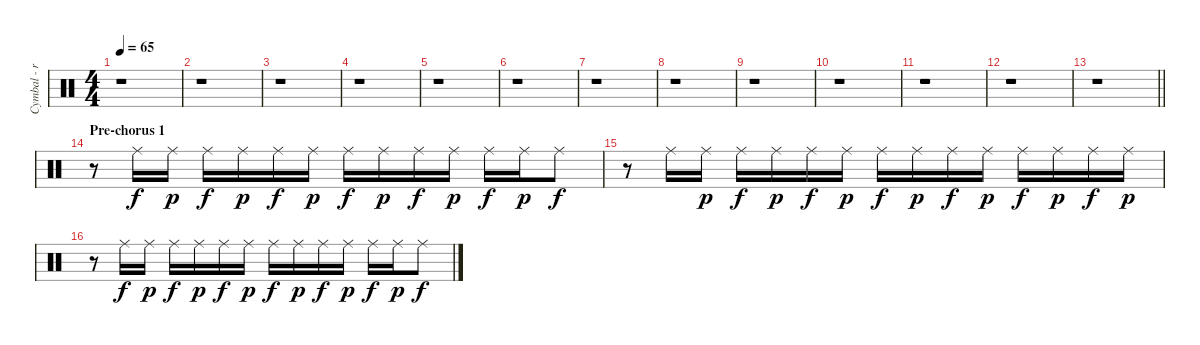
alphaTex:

\track ("Cymbal - ride" "Cymbal - r") {instrument percussion}
\staff {score}
\articulation defaults
\ts (4 4)
\tempo 65
\clef neutral
\ks c
r.1{dy f} |
r.1 |
r.1 |
r.1 |
r.1 |
r.1 |
r.1 |
r.1 |
r.1 |
r.1 |
r.1 |
r.1 |
\barLineRight lightlight
r.1 |
\section ("" "Pre-chorus 1")
r.8 "Ride (middle)".16 "Ride (middle)".16{dy p} "Ride (middle)".16{dy f} "Ride (middle)".16{dy p} "Ride (middle)".16{dy f} "Ride (middle)".16{dy p} "Ride (middle)".16{dy f} "Ride (middle)".16{dy p} "Ride (middle)".16{dy f} "Ride (middle)".16{dy p} "Ride (middle)".16{dy f} "Ride (middle)".16{dy p} "Ride (middle)".8{dy f} |
r.8 "Ride (middle)".16 "Ride (middle)".16{dy p} "Ride (middle)".16{dy f} "Ride (middle)".16{dy p} "Ride (middle)".16{dy f} "Ride (middle)".16{dy p} "Ride (middle)".16{dy f} "Ride (middle)".16{dy p} "Ride (middle)".16{dy f} "Ride (middle)".16{dy p} "Ride (middle)".16{dy f} "Ride (middle)".16{dy p} "Ride (middle)".16{dy f} "Ride (middle)".16{dy p} |
r.8 "Ride (middle)".16{dy f} "Ride (middle)".16{dy p} "Ride (middle)".16{dy f} "Ride (middle)".16{dy p} "Ride (middle)".16{dy f} "Ride (middle)".16{dy p} "Ride (middle)".16{dy f} "Ride (middle)".16{dy p} "Ride (middle)".16{dy f} "Ride (middle)".16{dy p} "Ride (middle)".16{dy f} "Ride (middle)".16{dy p} "Ride (middle)".8{dy f}
